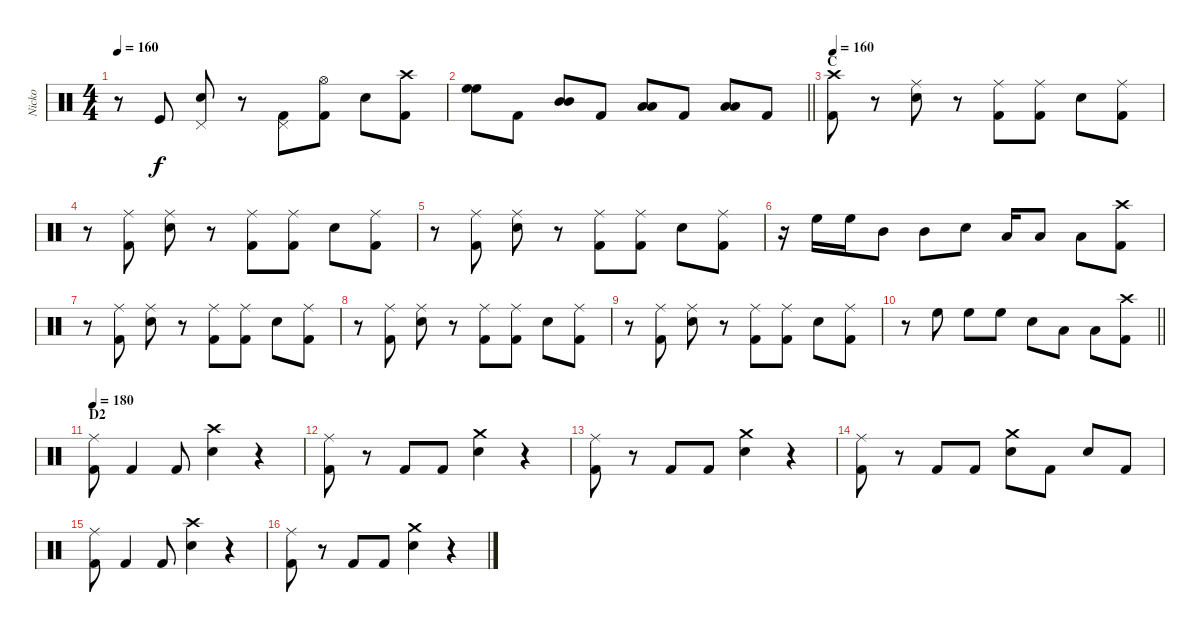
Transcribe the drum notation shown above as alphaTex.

\track ("Nicko" "Nicko") {instrument percussion}
\staff {score}
\articulation defaults
\ts (4 4)
\tempo 160
\clef neutral
\ks c
r.8{dy f} "Kick (hit)".8 ("Pedal Hi-Hat (hit)" "Snare (hit) 2").8 r.8 ("Pedal Hi-Hat (hit)" "Kick (hit) 2").8 ("Hi-Hat (open)" "Kick (hit) 2").8 "Snare (hit) 2".8 ("Crash high (hit)" "Kick (hit) 2").8 |
\barLineRight lightlight
("High Floor Tom (hit)" "High Floor Tom (hit)").8 "Kick (hit) 2".8 ("Mid Tom (hit)" "Mid Tom (hit)").8 "Kick (hit) 2".8 ("Low Tom (hit)" "Low Tom (hit)").8 "Kick (hit) 2".8 ("Low Floor Tom (hit)" "Low Floor Tom (hit)").8 "Kick (hit) 2".8 |
\section ("" "C")
\tempo 160
("Crash high (hit)" "Kick (hit) 2").8 r.8 ("Ride (middle)" "Snare (hit) 2").8 r.8 ("Ride (middle)" "Kick (hit) 2").8 ("Ride (middle)" "Kick (hit) 2").8 "Snare (hit) 2".8 ("Ride (middle)" "Kick (hit) 2").8 |
r.8 ("Ride (middle)" "Kick (hit) 2").8 ("Ride (middle)" "Snare (hit) 2").8 r.8 ("Ride (middle)" "Kick (hit) 2").8 ("Ride (middle)" "Kick (hit) 2").8 "Snare (hit) 2".8 ("Ride (middle)" "Kick (hit) 2").8 |
r.8 ("Ride (middle)" "Kick (hit) 2").8 ("Ride (middle)" "Snare (hit) 2").8 r.8 ("Ride (middle)" "Kick (hit) 2").8 ("Ride (middle)" "Kick (hit) 2").8 "Snare (hit) 2".8 ("Ride (middle)" "Kick (hit) 2").8 |
r.16 "High Floor Tom (hit)".16 "High Floor Tom (hit)".16 "Mid Tom (hit)".8 "Mid Tom (hit)".8 "Snare (hit) 2".8 "Low Tom (hit)".16 "Low Tom (hit)".8 "Low Floor Tom (hit)".8 ("Crash high (hit)" "Kick (hit) 2").8 |
r.8 ("Ride (middle)" "Kick (hit) 2").8 ("Ride (middle)" "Snare (hit) 2").8 r.8 ("Ride (middle)" "Kick (hit) 2").8 ("Ride (middle)" "Kick (hit) 2").8 "Snare (hit) 2".8 ("Ride (middle)" "Kick (hit) 2").8 |
r.8 ("Ride (middle)" "Kick (hit) 2").8 ("Ride (middle)" "Snare (hit) 2").8 r.8 ("Ride (middle)" "Kick (hit) 2").8 ("Ride (middle)" "Kick (hit) 2").8 "Snare (hit) 2".8 ("Ride (middle)" "Kick (hit) 2").8 |
r.8 ("Ride (middle)" "Kick (hit) 2").8 ("Ride (middle)" "Snare (hit) 2").8 r.8 ("Ride (middle)" "Kick (hit) 2").8 ("Ride (middle)" "Kick (hit) 2").8 "Snare (hit) 2".8 ("Ride (middle)" "Kick (hit) 2").8 |
\barLineRight lightlight
r.8 "High Floor Tom (hit)".8 "High Floor Tom (hit)".8 "High Floor Tom (hit)".8 "Snare (hit) 2".8 "Low Tom (hit)".8 "Low Floor Tom (hit)".8 ("Crash high (hit)" "Kick (hit) 2").8 |
\section ("" "D2")
\tempo 180
("Ride (middle)" "Kick (hit) 2").8 "Kick (hit) 2".4 "Kick (hit) 2".8 ("Crash high (hit)" "Snare (hit) 2").4 r.4 |
("Ride (middle)" "Kick (hit) 2").8 r.8 "Kick (hit) 2".8 "Kick (hit) 2".8 ("Crash medium (hit)" "Snare (hit) 2").4 r.4 |
("Ride (middle)" "Kick (hit) 2").8 r.8 "Kick (hit) 2".8 "Kick (hit) 2".8 ("Crash medium (hit)" "Snare (hit) 2").4 r.4 |
("Ride (middle)" "Kick (hit) 2").8 r.8 "Kick (hit) 2".8 "Kick (hit) 2".8 ("Crash medium (hit)" "Snare (hit) 2").8 "Kick (hit) 2".8 "Snare (hit) 2".8 "Kick (hit) 2".8 |
("Ride (middle)" "Kick (hit) 2").8 "Kick (hit) 2".4 "Kick (hit) 2".8 ("Crash high (hit)" "Snare (hit) 2").4 r.4 |
("Ride (middle)" "Kick (hit) 2").8 r.8 "Kick (hit) 2".8 "Kick (hit) 2".8 ("Crash medium (hit)" "Snare (hit) 2").4 r.4
